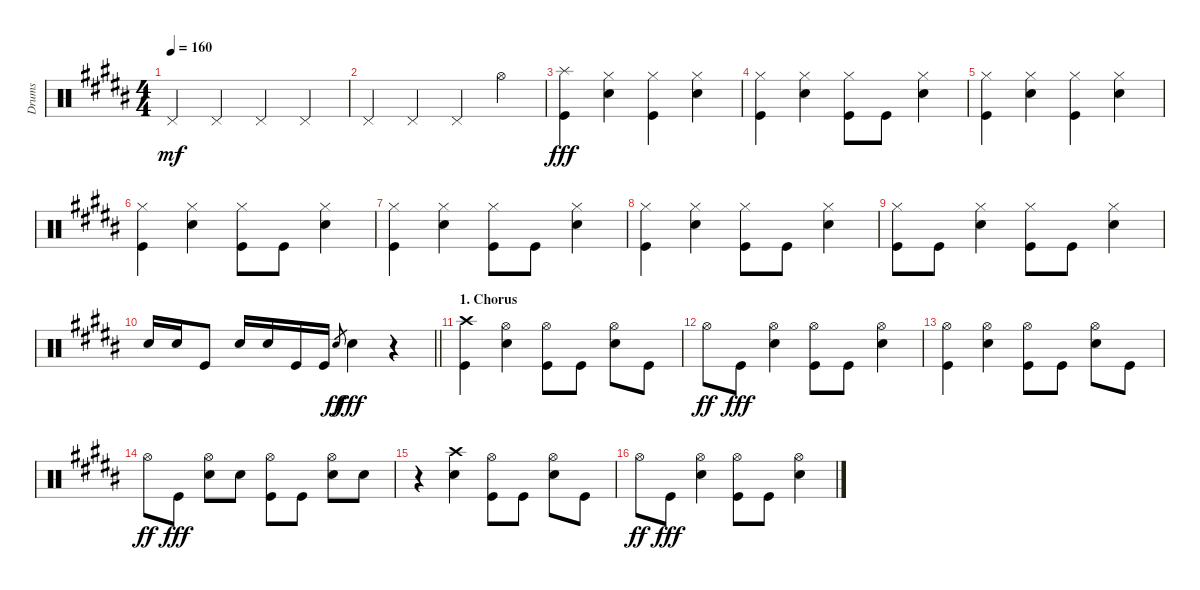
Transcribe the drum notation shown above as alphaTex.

\track ("Drums" "Drums") {instrument percussion}
\staff {score}
\articulation defaults
\ts (4 4)
\tempo 160
\clef neutral
\ks b "Pedal Hi-Hat (hit)".4{dy mf} "Pedal Hi-Hat (hit)".4 "Pedal Hi-Hat (hit)".4 "Pedal Hi-Hat (hit)".4
|
"Pedal Hi-Hat (hit)".4 "Pedal Hi-Hat (hit)".4 "Pedal Hi-Hat (hit)".4 "Hi-Hat (open)".4 |
("Splash (hit)" "Kick (hit)").4{dy fff} ("Hi-Hat (closed)" "Snare (hit) 2").4 ("Hi-Hat (closed)" "Kick (hit)").4 ("Hi-Hat (closed)" "Snare (hit) 2").4 |
("Hi-Hat (closed)" "Kick (hit)").4 ("Hi-Hat (closed)" "Snare (hit) 2").4 ("Hi-Hat (closed)" "Kick (hit)").8 "Kick (hit)".8 ("Hi-Hat (closed)" "Snare (hit) 2").4 |
("Hi-Hat (closed)" "Kick (hit)").4 ("Hi-Hat (closed)" "Snare (hit) 2").4 ("Hi-Hat (closed)" "Kick (hit)").4 ("Hi-Hat (closed)" "Snare (hit) 2").4 |
("Hi-Hat (closed)" "Kick (hit)").4 ("Hi-Hat (closed)" "Snare (hit) 2").4 ("Hi-Hat (closed)" "Kick (hit)").8 "Kick (hit)".8 ("Hi-Hat (closed)" "Snare (hit) 2").4 |
("Hi-Hat (closed)" "Kick (hit)").4 ("Hi-Hat (closed)" "Snare (hit) 2").4 ("Hi-Hat (closed)" "Kick (hit)").8 "Kick (hit)".8 ("Hi-Hat (closed)" "Snare (hit) 2").4 |
("Hi-Hat (closed)" "Kick (hit)").4 ("Hi-Hat (closed)" "Snare (hit) 2").4 ("Hi-Hat (closed)" "Kick (hit)").8 "Kick (hit)".8 ("Hi-Hat (closed)" "Snare (hit) 2").4 |
("Hi-Hat (closed)" "Kick (hit)").8 "Kick (hit)".8 ("Hi-Hat (closed)" "Snare (hit) 2").4 ("Hi-Hat (closed)" "Kick (hit)").8 "Kick (hit)".8 ("Hi-Hat (closed)" "Snare (hit) 2").4 |
\barLineRight lightlight "Snare (hit) 2".16 "Snare (hit) 2".16 "Kick (hit)".8 "Snare (hit) 2".16 "Snare (hit) 2".16 "Kick (hit)".16 "Kick (hit)".16 "Snare (hit) 2".8{gr dy ff} "Snare (hit) 2".4{dy fff}
r.4 |
\section ("" "1. Chorus")
("Crash high (hit)" "Kick (hit)").4 ("Hi-Hat (open)" "Snare (hit) 2").4 ("Hi-Hat (open)" "Kick (hit)").8 "Kick (hit)".8 ("Hi-Hat (open)" "Snare (hit) 2").8 "Kick (hit)".8 |
"Hi-Hat (open)".8{dy ff} "Kick (hit)".8{dy fff} ("Hi-Hat (open)" "Snare (hit) 2").4 ("Hi-Hat (open)" "Kick (hit)").8 "Kick (hit)".8 ("Hi-Hat (open)" "Snare (hit) 2").4 |
("Hi-Hat (open)" "Kick (hit)").4 ("Hi-Hat (open)" "Snare (hit) 2").4 ("Hi-Hat (open)" "Kick (hit)").8 "Kick (hit)".8 ("Hi-Hat (open)" "Snare (hit) 2").8 "Kick (hit)".8 |
"Hi-Hat (open)".8{dy ff} "Kick (hit)".8{dy fff} ("Hi-Hat (open)" "Snare (hit) 2").8 "Snare (hit) 2".8 ("Hi-Hat (open)" "Kick (hit)").8 "Kick (hit)".8 ("Hi-Hat (open)" "Snare (hit) 2").8 "Snare (hit) 2".8 |
r.4 ("Crash high (hit)" "Snare (hit) 2").4 ("Hi-Hat (open)" "Kick (hit)").8 "Kick (hit)".8 ("Hi-Hat (open)" "Snare (hit) 2").8 "Kick (hit)".8 |
"Hi-Hat (open)".8{dy ff} "Kick (hit)".8{dy fff} ("Hi-Hat (open)" "Snare (hit) 2").4 ("Hi-Hat (open)" "Kick (hit)").8 "Kick (hit)".8 ("Hi-Hat (open)" "Snare (hit) 2").4
